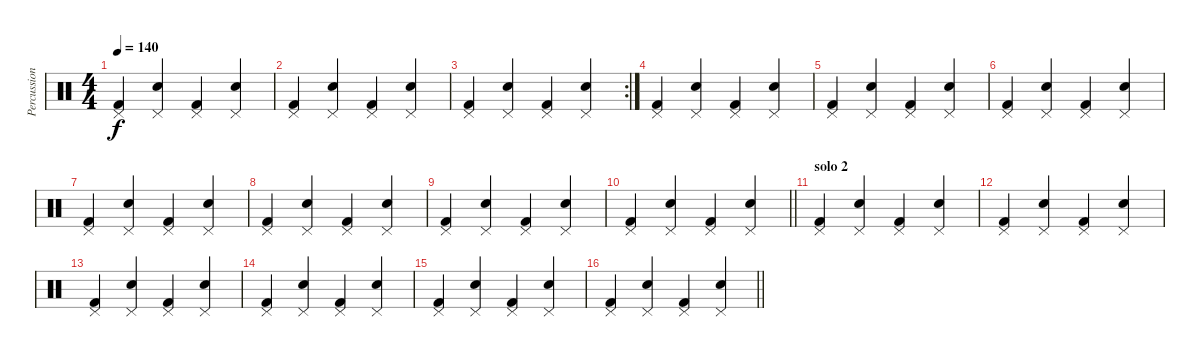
\track ("Percussion" "Percussion") {instrument percussion}
\staff {score}
\articulation defaults
\ts (4 4)
\tempo 140
\clef neutral
\ks c
("Kick (hit) 2" "Pedal Hi-Hat (hit)").4{dy f} ("Snare (hit) 2" "Pedal Hi-Hat (hit)").4 ("Kick (hit) 2" "Pedal Hi-Hat (hit)").4 ("Snare (hit) 2" "Pedal Hi-Hat (hit)").4 |
("Kick (hit) 2" "Pedal Hi-Hat (hit)").4 ("Snare (hit) 2" "Pedal Hi-Hat (hit)").4 ("Kick (hit) 2" "Pedal Hi-Hat (hit)").4 ("Snare (hit) 2" "Pedal Hi-Hat (hit)").4 |
\rc 2
("Kick (hit) 2" "Pedal Hi-Hat (hit)").4 ("Snare (hit) 2" "Pedal Hi-Hat (hit)").4 ("Kick (hit) 2" "Pedal Hi-Hat (hit)").4 ("Snare (hit) 2" "Pedal Hi-Hat (hit)").4 |
("Kick (hit) 2" "Pedal Hi-Hat (hit)").4 ("Snare (hit) 2" "Pedal Hi-Hat (hit)").4 ("Kick (hit) 2" "Pedal Hi-Hat (hit)").4 ("Snare (hit) 2" "Pedal Hi-Hat (hit)").4 |
("Kick (hit) 2" "Pedal Hi-Hat (hit)").4 ("Snare (hit) 2" "Pedal Hi-Hat (hit)").4 ("Kick (hit) 2" "Pedal Hi-Hat (hit)").4 ("Snare (hit) 2" "Pedal Hi-Hat (hit)").4 |
("Kick (hit) 2" "Pedal Hi-Hat (hit)").4 ("Snare (hit) 2" "Pedal Hi-Hat (hit)").4 ("Kick (hit) 2" "Pedal Hi-Hat (hit)").4 ("Snare (hit) 2" "Pedal Hi-Hat (hit)").4 |
("Kick (hit) 2" "Pedal Hi-Hat (hit)").4 ("Snare (hit) 2" "Pedal Hi-Hat (hit)").4 ("Kick (hit) 2" "Pedal Hi-Hat (hit)").4 ("Snare (hit) 2" "Pedal Hi-Hat (hit)").4 |
("Kick (hit) 2" "Pedal Hi-Hat (hit)").4 ("Snare (hit) 2" "Pedal Hi-Hat (hit)").4 ("Kick (hit) 2" "Pedal Hi-Hat (hit)").4 ("Snare (hit) 2" "Pedal Hi-Hat (hit)").4 |
("Kick (hit) 2" "Pedal Hi-Hat (hit)").4 ("Snare (hit) 2" "Pedal Hi-Hat (hit)").4 ("Kick (hit) 2" "Pedal Hi-Hat (hit)").4 ("Snare (hit) 2" "Pedal Hi-Hat (hit)").4 |
\barLineRight lightlight
("Kick (hit) 2" "Pedal Hi-Hat (hit)").4 ("Snare (hit) 2" "Pedal Hi-Hat (hit)").4 ("Kick (hit) 2" "Pedal Hi-Hat (hit)").4 ("Snare (hit) 2" "Pedal Hi-Hat (hit)").4 |
\section ("" "solo 2")
("Kick (hit) 2" "Pedal Hi-Hat (hit)").4 ("Snare (hit) 2" "Pedal Hi-Hat (hit)").4 ("Kick (hit) 2" "Pedal Hi-Hat (hit)").4 ("Snare (hit) 2" "Pedal Hi-Hat (hit)").4 |
("Kick (hit) 2" "Pedal Hi-Hat (hit)").4 ("Snare (hit) 2" "Pedal Hi-Hat (hit)").4 ("Kick (hit) 2" "Pedal Hi-Hat (hit)").4 ("Snare (hit) 2" "Pedal Hi-Hat (hit)").4 |
("Kick (hit) 2" "Pedal Hi-Hat (hit)").4 ("Snare (hit) 2" "Pedal Hi-Hat (hit)").4 ("Kick (hit) 2" "Pedal Hi-Hat (hit)").4 ("Snare (hit) 2" "Pedal Hi-Hat (hit)").4 |
("Kick (hit) 2" "Pedal Hi-Hat (hit)").4 ("Snare (hit) 2" "Pedal Hi-Hat (hit)").4 ("Kick (hit) 2" "Pedal Hi-Hat (hit)").4 ("Snare (hit) 2" "Pedal Hi-Hat (hit)").4 |
("Kick (hit) 2" "Pedal Hi-Hat (hit)").4 ("Snare (hit) 2" "Pedal Hi-Hat (hit)").4 ("Kick (hit) 2" "Pedal Hi-Hat (hit)").4 ("Snare (hit) 2" "Pedal Hi-Hat (hit)").4 |
\barLineRight lightlight
("Kick (hit) 2" "Pedal Hi-Hat (hit)").4 ("Snare (hit) 2" "Pedal Hi-Hat (hit)").4 ("Kick (hit) 2" "Pedal Hi-Hat (hit)").4 ("Snare (hit) 2" "Pedal Hi-Hat (hit)").4
